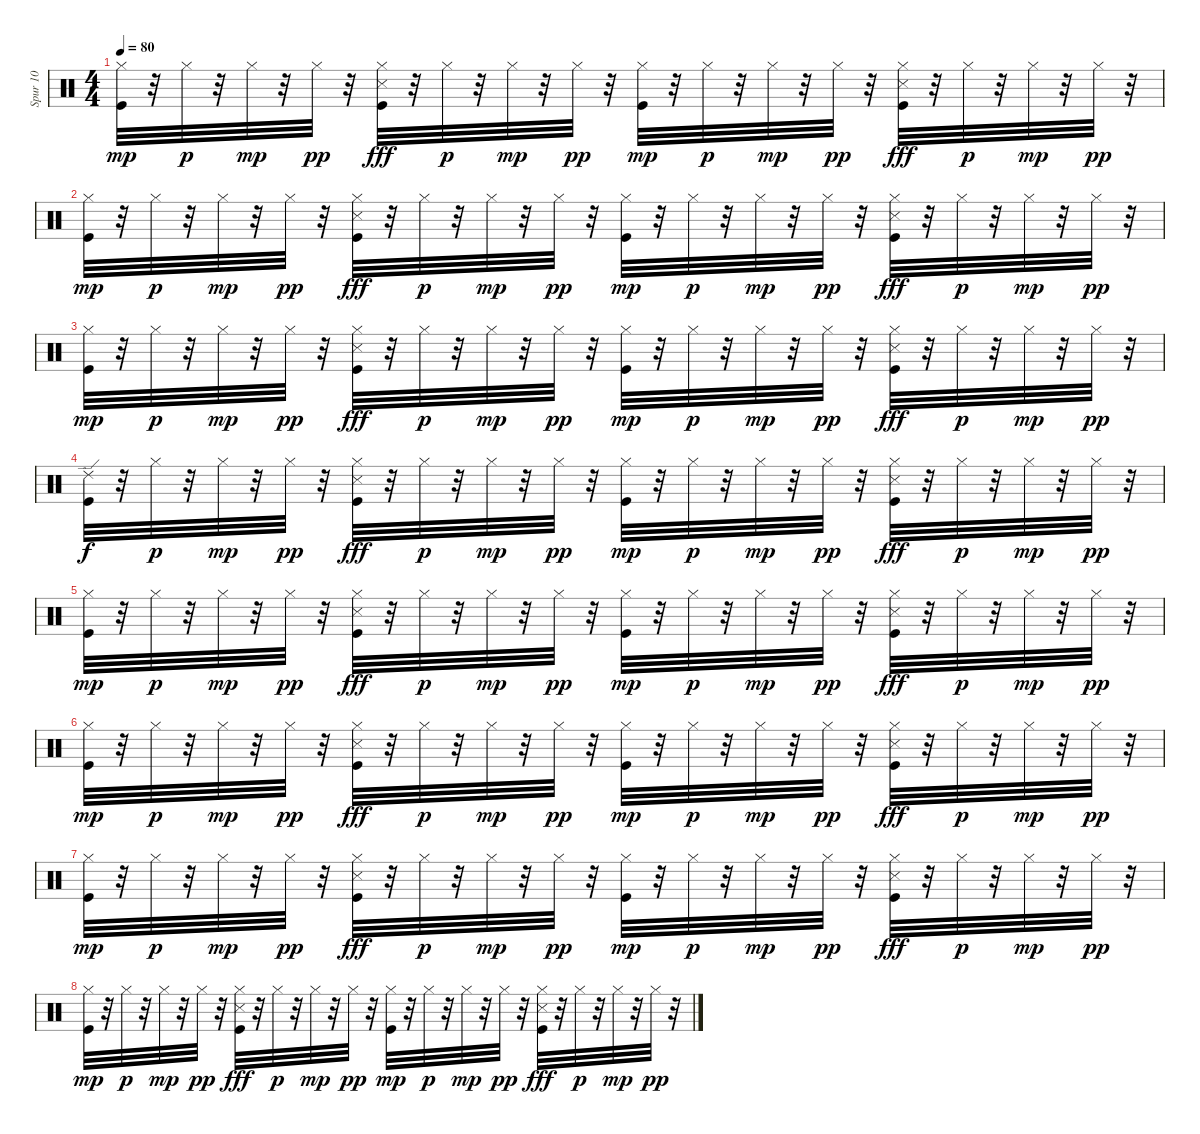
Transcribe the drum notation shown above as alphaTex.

\track ("Spur 10" "Spur 10") {instrument percussion}
\staff {score}
\articulation defaults
\ts (4 4)
\tempo 80
\clef neutral
\ks c
("Hi-Hat (closed)" "Kick (hit)").32{dy mp} r.32 "Hi-Hat (closed)".32{dy p} r.32 "Hi-Hat (closed)".32{dy mp} r.32 "Hi-Hat (closed)".32{dy pp} r.32 ("Hi-Hat (closed)" "Snare (side stick) 3" "Kick (hit)").32{dy fff} r.32 "Hi-Hat (closed)".32{dy p} r.32 "Hi-Hat (closed)".32{dy mp} r.32 "Hi-Hat (closed)".32{dy pp} r.32 ("Hi-Hat (closed)" "Kick (hit)").32{dy mp} r.32 "Hi-Hat (closed)".32{dy p} r.32 "Hi-Hat (closed)".32{dy mp} r.32 "Hi-Hat (closed)".32{dy pp} r.32 ("Hi-Hat (closed)" "Snare (side stick) 3" "Kick (hit)").32{dy fff} r.32 "Hi-Hat (closed)".32{dy p} r.32 "Hi-Hat (closed)".32{dy mp} r.32 "Hi-Hat (closed)".32{dy pp} r.32 |
("Hi-Hat (closed)" "Kick (hit)").32{dy mp} r.32 "Hi-Hat (closed)".32{dy p} r.32 "Hi-Hat (closed)".32{dy mp} r.32 "Hi-Hat (closed)".32{dy pp} r.32 ("Hi-Hat (closed)" "Snare (side stick) 3" "Kick (hit)").32{dy fff} r.32 "Hi-Hat (closed)".32{dy p} r.32 "Hi-Hat (closed)".32{dy mp} r.32 "Hi-Hat (closed)".32{dy pp} r.32 ("Hi-Hat (closed)" "Kick (hit)").32{dy mp} r.32 "Hi-Hat (closed)".32{dy p} r.32 "Hi-Hat (closed)".32{dy mp} r.32 "Hi-Hat (closed)".32{dy pp} r.32 ("Hi-Hat (closed)" "Snare (side stick) 3" "Kick (hit)").32{dy fff} r.32 "Hi-Hat (closed)".32{dy p} r.32 "Hi-Hat (closed)".32{dy mp} r.32 "Hi-Hat (closed)".32{dy pp} r.32 |
("Hi-Hat (closed)" "Kick (hit)").32{dy mp} r.32 "Hi-Hat (closed)".32{dy p} r.32 "Hi-Hat (closed)".32{dy mp} r.32 "Hi-Hat (closed)".32{dy pp} r.32 ("Hi-Hat (closed)" "Snare (side stick) 3" "Kick (hit)").32{dy fff} r.32 "Hi-Hat (closed)".32{dy p} r.32 "Hi-Hat (closed)".32{dy mp} r.32 "Hi-Hat (closed)".32{dy pp} r.32 ("Hi-Hat (closed)" "Kick (hit)").32{dy mp} r.32 "Hi-Hat (closed)".32{dy p} r.32 "Hi-Hat (closed)".32{dy mp} r.32 "Hi-Hat (closed)".32{dy pp} r.32 ("Hi-Hat (closed)" "Snare (side stick) 3" "Kick (hit)").32{dy fff} r.32 "Hi-Hat (closed)".32{dy p} r.32 "Hi-Hat (closed)".32{dy mp} r.32 "Hi-Hat (closed)".32{dy pp} r.32 |
("Ride (edge) 2" "Kick (hit)").32{dy f} r.32 "Hi-Hat (closed)".32{dy p} r.32 "Hi-Hat (closed)".32{dy mp} r.32 "Hi-Hat (closed)".32{dy pp} r.32 ("Hi-Hat (closed)" "Snare (side stick) 3" "Kick (hit)").32{dy fff} r.32 "Hi-Hat (closed)".32{dy p} r.32 "Hi-Hat (closed)".32{dy mp} r.32 "Hi-Hat (closed)".32{dy pp} r.32 ("Hi-Hat (closed)" "Kick (hit)").32{dy mp} r.32 "Hi-Hat (closed)".32{dy p} r.32 "Hi-Hat (closed)".32{dy mp} r.32 "Hi-Hat (closed)".32{dy pp} r.32 ("Hi-Hat (closed)" "Snare (side stick) 3" "Kick (hit)").32{dy fff} r.32 "Hi-Hat (closed)".32{dy p} r.32 "Hi-Hat (closed)".32{dy mp} r.32 "Hi-Hat (closed)".32{dy pp} r.32 |
("Hi-Hat (closed)" "Kick (hit)").32{dy mp} r.32 "Hi-Hat (closed)".32{dy p} r.32 "Hi-Hat (closed)".32{dy mp} r.32 "Hi-Hat (closed)".32{dy pp} r.32 ("Hi-Hat (closed)" "Snare (side stick) 3" "Kick (hit)").32{dy fff} r.32 "Hi-Hat (closed)".32{dy p} r.32 "Hi-Hat (closed)".32{dy mp} r.32 "Hi-Hat (closed)".32{dy pp} r.32 ("Hi-Hat (closed)" "Kick (hit)").32{dy mp} r.32 "Hi-Hat (closed)".32{dy p} r.32 "Hi-Hat (closed)".32{dy mp} r.32 "Hi-Hat (closed)".32{dy pp} r.32 ("Hi-Hat (closed)" "Snare (side stick) 3" "Kick (hit)").32{dy fff} r.32 "Hi-Hat (closed)".32{dy p} r.32 "Hi-Hat (closed)".32{dy mp} r.32 "Hi-Hat (closed)".32{dy pp} r.32 |
("Hi-Hat (closed)" "Kick (hit)").32{dy mp} r.32 "Hi-Hat (closed)".32{dy p} r.32 "Hi-Hat (closed)".32{dy mp} r.32 "Hi-Hat (closed)".32{dy pp} r.32 ("Hi-Hat (closed)" "Snare (side stick) 3" "Kick (hit)").32{dy fff} r.32 "Hi-Hat (closed)".32{dy p} r.32 "Hi-Hat (closed)".32{dy mp} r.32 "Hi-Hat (closed)".32{dy pp} r.32 ("Hi-Hat (closed)" "Kick (hit)").32{dy mp} r.32 "Hi-Hat (closed)".32{dy p} r.32 "Hi-Hat (closed)".32{dy mp} r.32 "Hi-Hat (closed)".32{dy pp} r.32 ("Hi-Hat (closed)" "Snare (side stick) 3" "Kick (hit)").32{dy fff} r.32 "Hi-Hat (closed)".32{dy p} r.32 "Hi-Hat (closed)".32{dy mp} r.32 "Hi-Hat (closed)".32{dy pp} r.32 |
("Hi-Hat (closed)" "Kick (hit)").32{dy mp} r.32 "Hi-Hat (closed)".32{dy p} r.32 "Hi-Hat (closed)".32{dy mp} r.32 "Hi-Hat (closed)".32{dy pp} r.32 ("Hi-Hat (closed)" "Snare (side stick) 3" "Kick (hit)").32{dy fff} r.32 "Hi-Hat (closed)".32{dy p} r.32 "Hi-Hat (closed)".32{dy mp} r.32 "Hi-Hat (closed)".32{dy pp} r.32 ("Hi-Hat (closed)" "Kick (hit)").32{dy mp} r.32 "Hi-Hat (closed)".32{dy p} r.32 "Hi-Hat (closed)".32{dy mp} r.32 "Hi-Hat (closed)".32{dy pp} r.32 ("Hi-Hat (closed)" "Snare (side stick) 3" "Kick (hit)").32{dy fff} r.32 "Hi-Hat (closed)".32{dy p} r.32 "Hi-Hat (closed)".32{dy mp} r.32 "Hi-Hat (closed)".32{dy pp} r.32 |
("Hi-Hat (closed)" "Kick (hit)").32{dy mp} r.32 "Hi-Hat (closed)".32{dy p} r.32 "Hi-Hat (closed)".32{dy mp} r.32 "Hi-Hat (closed)".32{dy pp} r.32 ("Hi-Hat (closed)" "Snare (side stick) 3" "Kick (hit)").32{dy fff} r.32 "Hi-Hat (closed)".32{dy p} r.32 "Hi-Hat (closed)".32{dy mp} r.32 "Hi-Hat (closed)".32{dy pp} r.32 ("Hi-Hat (closed)" "Kick (hit)").32{dy mp} r.32 "Hi-Hat (closed)".32{dy p} r.32 "Hi-Hat (closed)".32{dy mp} r.32 "Hi-Hat (closed)".32{dy pp} r.32 ("Hi-Hat (closed)" "Snare (side stick) 3" "Kick (hit)").32{dy fff} r.32 "Hi-Hat (closed)".32{dy p} r.32 "Hi-Hat (closed)".32{dy mp} r.32 "Hi-Hat (closed)".32{dy pp} r.32
